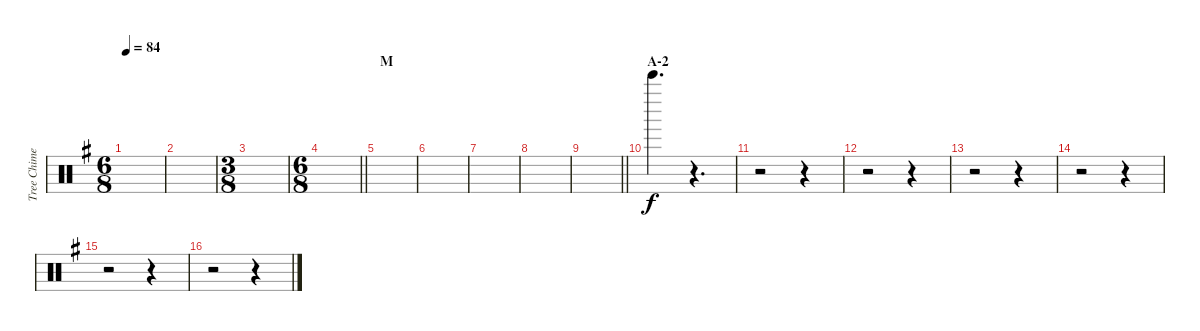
\track ("Tree Chime" "Tree Chime") {instrument percussion}
\staff {score}
\articulation defaults
\ts (6 8)
\tempo 84
\clef neutral
\ks g
|
|
\ts (3 8)
|
\ts (6 8)
\barLineRight lightlight
|
\section ("" "M")
|
|
|
|
\barLineRight lightlight
|
\section ("" "A-2")
"Bell Tree (hit)".4{d} r.4{d} |
r.2 r.4 |
r.2 r.4 |
r.2 r.4 |
r.2 r.4 |
r.2 r.4 |
r.2 r.4
